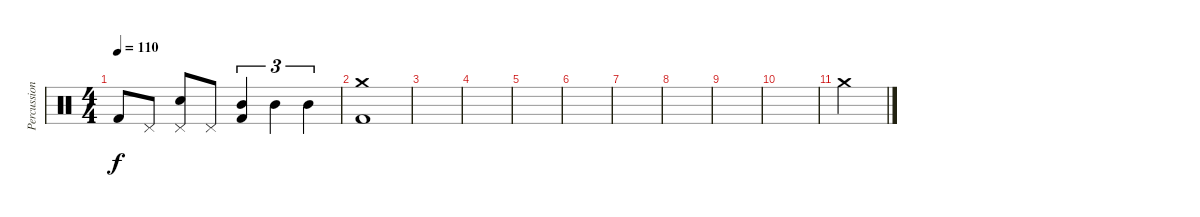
\track ("Percussion" "Percussion") {instrument percussion}
\staff {score}
\articulation defaults
\ts (4 4)
\tempo 110
\clef neutral
\ks c "Kick (hit) 2".8{dy f} "Pedal Hi-Hat (hit)".8
("Pedal Hi-Hat (hit)" "Snare (hit) 2").8 "Pedal Hi-Hat (hit)".8 ("Mid Tom (hit)" "Kick (hit) 2").4{tu (3 2)} "Mid Tom (hit)".4{tu (3 2)} "Mid Tom (hit)".4{tu (3 2)} |
("Crash medium (hit)" "Kick (hit) 2").1 |
|
|
|
|
|
|
|
|
"Crash medium (hit)".2
